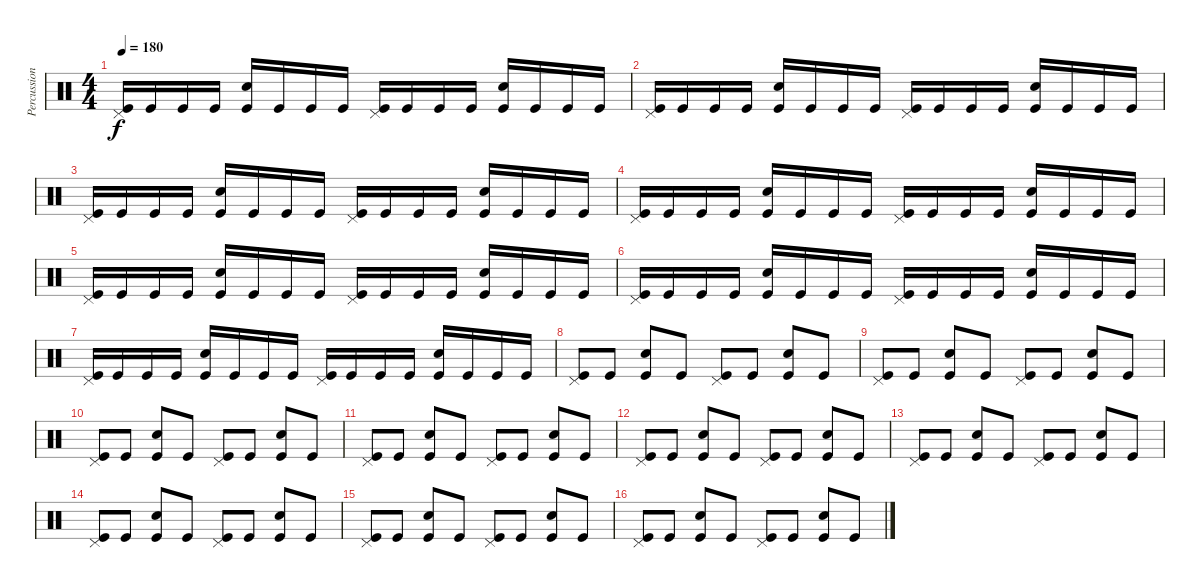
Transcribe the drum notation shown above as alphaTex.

\track ("Percussion" "Percussion") {instrument percussion}
\staff {score}
\articulation defaults
\ts (4 4)
\tempo 180
\clef neutral
\ks c
("Pedal Hi-Hat (hit)" "Kick (hit)").16{dy f} "Kick (hit)".16 "Kick (hit)".16 "Kick (hit)".16 ("Electric Snare (hit)" "Kick (hit)").16 "Kick (hit)".16 "Kick (hit)".16 "Kick (hit)".16 ("Pedal Hi-Hat (hit)" "Kick (hit)").16 "Kick (hit)".16 "Kick (hit)".16 "Kick (hit)".16 ("Electric Snare (hit)" "Kick (hit)").16 "Kick (hit)".16 "Kick (hit)".16 "Kick (hit)".16 |
("Pedal Hi-Hat (hit)" "Kick (hit)").16 "Kick (hit)".16 "Kick (hit)".16 "Kick (hit)".16 ("Electric Snare (hit)" "Kick (hit)").16 "Kick (hit)".16 "Kick (hit)".16 "Kick (hit)".16 ("Pedal Hi-Hat (hit)" "Kick (hit)").16 "Kick (hit)".16 "Kick (hit)".16 "Kick (hit)".16 ("Electric Snare (hit)" "Kick (hit)").16 "Kick (hit)".16 "Kick (hit)".16 "Kick (hit)".16 |
("Pedal Hi-Hat (hit)" "Kick (hit)").16 "Kick (hit)".16 "Kick (hit)".16 "Kick (hit)".16 ("Electric Snare (hit)" "Kick (hit)").16 "Kick (hit)".16 "Kick (hit)".16 "Kick (hit)".16 ("Pedal Hi-Hat (hit)" "Kick (hit)").16 "Kick (hit)".16 "Kick (hit)".16 "Kick (hit)".16 ("Electric Snare (hit)" "Kick (hit)").16 "Kick (hit)".16 "Kick (hit)".16 "Kick (hit)".16 |
("Pedal Hi-Hat (hit)" "Kick (hit)").16 "Kick (hit)".16 "Kick (hit)".16 "Kick (hit)".16 ("Electric Snare (hit)" "Kick (hit)").16 "Kick (hit)".16 "Kick (hit)".16 "Kick (hit)".16 ("Pedal Hi-Hat (hit)" "Kick (hit)").16 "Kick (hit)".16 "Kick (hit)".16 "Kick (hit)".16 ("Electric Snare (hit)" "Kick (hit)").16 "Kick (hit)".16 "Kick (hit)".16 "Kick (hit)".16 |
("Pedal Hi-Hat (hit)" "Kick (hit)").16 "Kick (hit)".16 "Kick (hit)".16 "Kick (hit)".16 ("Electric Snare (hit)" "Kick (hit)").16 "Kick (hit)".16 "Kick (hit)".16 "Kick (hit)".16 ("Pedal Hi-Hat (hit)" "Kick (hit)").16 "Kick (hit)".16 "Kick (hit)".16 "Kick (hit)".16 ("Electric Snare (hit)" "Kick (hit)").16 "Kick (hit)".16 "Kick (hit)".16 "Kick (hit)".16 |
("Pedal Hi-Hat (hit)" "Kick (hit)").16 "Kick (hit)".16 "Kick (hit)".16 "Kick (hit)".16 ("Electric Snare (hit)" "Kick (hit)").16 "Kick (hit)".16 "Kick (hit)".16 "Kick (hit)".16 ("Pedal Hi-Hat (hit)" "Kick (hit)").16 "Kick (hit)".16 "Kick (hit)".16 "Kick (hit)".16 ("Electric Snare (hit)" "Kick (hit)").16 "Kick (hit)".16 "Kick (hit)".16 "Kick (hit)".16 |
("Pedal Hi-Hat (hit)" "Kick (hit)").16 "Kick (hit)".16 "Kick (hit)".16 "Kick (hit)".16 ("Electric Snare (hit)" "Kick (hit)").16 "Kick (hit)".16 "Kick (hit)".16 "Kick (hit)".16 ("Pedal Hi-Hat (hit)" "Kick (hit)").16 "Kick (hit)".16 "Kick (hit)".16 "Kick (hit)".16 ("Electric Snare (hit)" "Kick (hit)").16 "Kick (hit)".16 "Kick (hit)".16 "Kick (hit)".16 |
("Pedal Hi-Hat (hit)" "Kick (hit)").8 "Kick (hit)".8 ("Electric Snare (hit)" "Kick (hit)").8 "Kick (hit)".8 ("Pedal Hi-Hat (hit)" "Kick (hit)").8 "Kick (hit)".8 ("Electric Snare (hit)" "Kick (hit)").8 "Kick (hit)".8 |
("Pedal Hi-Hat (hit)" "Kick (hit)").8 "Kick (hit)".8 ("Electric Snare (hit)" "Kick (hit)").8 "Kick (hit)".8 ("Pedal Hi-Hat (hit)" "Kick (hit)").8 "Kick (hit)".8 ("Electric Snare (hit)" "Kick (hit)").8 "Kick (hit)".8 |
("Pedal Hi-Hat (hit)" "Kick (hit)").8 "Kick (hit)".8 ("Electric Snare (hit)" "Kick (hit)").8 "Kick (hit)".8 ("Pedal Hi-Hat (hit)" "Kick (hit)").8 "Kick (hit)".8 ("Electric Snare (hit)" "Kick (hit)").8 "Kick (hit)".8 |
("Pedal Hi-Hat (hit)" "Kick (hit)").8 "Kick (hit)".8 ("Electric Snare (hit)" "Kick (hit)").8 "Kick (hit)".8 ("Pedal Hi-Hat (hit)" "Kick (hit)").8 "Kick (hit)".8 ("Electric Snare (hit)" "Kick (hit)").8 "Kick (hit)".8 |
("Pedal Hi-Hat (hit)" "Kick (hit)").8 "Kick (hit)".8 ("Electric Snare (hit)" "Kick (hit)").8 "Kick (hit)".8 ("Pedal Hi-Hat (hit)" "Kick (hit)").8 "Kick (hit)".8 ("Electric Snare (hit)" "Kick (hit)").8 "Kick (hit)".8 |
("Pedal Hi-Hat (hit)" "Kick (hit)").8 "Kick (hit)".8 ("Electric Snare (hit)" "Kick (hit)").8 "Kick (hit)".8 ("Pedal Hi-Hat (hit)" "Kick (hit)").8 "Kick (hit)".8 ("Electric Snare (hit)" "Kick (hit)").8 "Kick (hit)".8 |
("Pedal Hi-Hat (hit)" "Kick (hit)").8 "Kick (hit)".8 ("Electric Snare (hit)" "Kick (hit)").8 "Kick (hit)".8 ("Pedal Hi-Hat (hit)" "Kick (hit)").8 "Kick (hit)".8 ("Electric Snare (hit)" "Kick (hit)").8 "Kick (hit)".8 |
("Pedal Hi-Hat (hit)" "Kick (hit)").8 "Kick (hit)".8 ("Electric Snare (hit)" "Kick (hit)").8 "Kick (hit)".8 ("Pedal Hi-Hat (hit)" "Kick (hit)").8 "Kick (hit)".8 ("Electric Snare (hit)" "Kick (hit)").8 "Kick (hit)".8 |
("Pedal Hi-Hat (hit)" "Kick (hit)").8 "Kick (hit)".8 ("Electric Snare (hit)" "Kick (hit)").8 "Kick (hit)".8 ("Pedal Hi-Hat (hit)" "Kick (hit)").8 "Kick (hit)".8 ("Electric Snare (hit)" "Kick (hit)").8 "Kick (hit)".8
